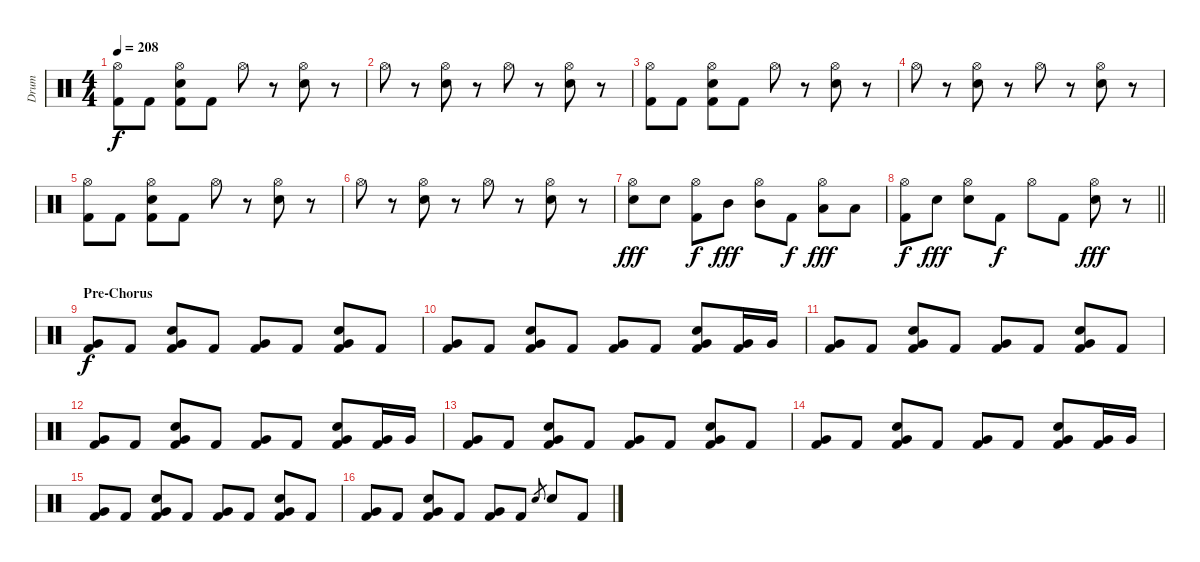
\track ("Drum" "Drum") {instrument percussion}
\staff {score}
\articulation defaults
\ts (4 4)
\tempo 208
\clef neutral
\ks c
("Hi-Hat (open)" "Kick (hit) 2").8{dy f} "Kick (hit) 2".8 ("Hi-Hat (open)" "Electric Snare (hit)" "Kick (hit) 2").8 "Kick (hit) 2".8 "Hi-Hat (open)".8 r.8 ("Hi-Hat (open)" "Electric Snare (hit)").8 r.8 |
"Hi-Hat (open)".8 r.8 ("Hi-Hat (open)" "Electric Snare (hit)").8 r.8 "Hi-Hat (open)".8 r.8 ("Hi-Hat (open)" "Electric Snare (hit)").8 r.8 |
("Hi-Hat (open)" "Kick (hit) 2").8 "Kick (hit) 2".8 ("Hi-Hat (open)" "Electric Snare (hit)" "Kick (hit) 2").8 "Kick (hit) 2".8 "Hi-Hat (open)".8 r.8 ("Hi-Hat (open)" "Electric Snare (hit)").8 r.8 |
"Hi-Hat (open)".8 r.8 ("Hi-Hat (open)" "Electric Snare (hit)").8 r.8 "Hi-Hat (open)".8 r.8 ("Hi-Hat (open)" "Electric Snare (hit)").8 r.8 |
("Hi-Hat (open)" "Kick (hit) 2").8 "Kick (hit) 2".8 ("Hi-Hat (open)" "Electric Snare (hit)" "Kick (hit) 2").8 "Kick (hit) 2".8 "Hi-Hat (open)".8 r.8 ("Hi-Hat (open)" "Electric Snare (hit)").8 r.8 |
"Hi-Hat (open)".8 r.8 ("Hi-Hat (open)" "Electric Snare (hit)").8 r.8 "Hi-Hat (open)".8 r.8 ("Hi-Hat (open)" "Electric Snare (hit)").8 r.8 |
("Hi-Hat (open)" "Electric Snare (hit)").8{dy fff} "Electric Snare (hit)".8 ("Hi-Hat (open)" "Kick (hit) 2").8{dy f} "Mid Tom (hit)".8{dy fff} ("Hi-Hat (open)" "Mid Tom (hit)").8 "Kick (hit) 2".8{dy f} ("Hi-Hat (open)" "Low Tom (hit)").8{dy fff} "Low Tom (hit)".8 |
\barLineRight lightlight
("Hi-Hat (open)" "Kick (hit) 2").8{dy f} "Electric Snare (hit)".8{dy fff} ("Hi-Hat (open)" "Electric Snare (hit)").8 "Kick (hit) 2".8{dy f} "Hi-Hat (open)".8 "Kick (hit) 2".8 ("Hi-Hat (open)" "Electric Snare (hit)").8{dy fff} r.8 |
\section ("" "Pre-Chorus")
("Very Low Tom (hit)" "Kick (hit) 2").8{dy f} "Kick (hit) 2".8 ("Very Low Tom (hit)" "Electric Snare (hit)" "Kick (hit) 2").8 "Kick (hit) 2".8 ("Very Low Tom (hit)" "Kick (hit) 2").8 "Kick (hit) 2".8 ("Very Low Tom (hit)" "Electric Snare (hit)" "Kick (hit) 2").8 "Kick (hit) 2".8 |
("Very Low Tom (hit)" "Kick (hit) 2").8 "Kick (hit) 2".8 ("Very Low Tom (hit)" "Electric Snare (hit)" "Kick (hit) 2").8 "Kick (hit) 2".8 ("Very Low Tom (hit)" "Kick (hit) 2").8 "Kick (hit) 2".8 ("Very Low Tom (hit)" "Electric Snare (hit)" "Kick (hit) 2").8 ("Very Low Tom (hit)" "Kick (hit) 2").16 "Very Low Tom (hit)".16 |
("Very Low Tom (hit)" "Kick (hit) 2").8 "Kick (hit) 2".8 ("Very Low Tom (hit)" "Electric Snare (hit)" "Kick (hit) 2").8 "Kick (hit) 2".8 ("Very Low Tom (hit)" "Kick (hit) 2").8 "Kick (hit) 2".8 ("Very Low Tom (hit)" "Electric Snare (hit)" "Kick (hit) 2").8 "Kick (hit) 2".8 |
("Very Low Tom (hit)" "Kick (hit) 2").8 "Kick (hit) 2".8 ("Very Low Tom (hit)" "Electric Snare (hit)" "Kick (hit) 2").8 "Kick (hit) 2".8 ("Very Low Tom (hit)" "Kick (hit) 2").8 "Kick (hit) 2".8 ("Very Low Tom (hit)" "Electric Snare (hit)" "Kick (hit) 2").8 ("Very Low Tom (hit)" "Kick (hit) 2").16 "Very Low Tom (hit)".16 |
("Very Low Tom (hit)" "Kick (hit) 2").8 "Kick (hit) 2".8 ("Very Low Tom (hit)" "Electric Snare (hit)" "Kick (hit) 2").8 "Kick (hit) 2".8 ("Very Low Tom (hit)" "Kick (hit) 2").8 "Kick (hit) 2".8 ("Very Low Tom (hit)" "Electric Snare (hit)" "Kick (hit) 2").8 "Kick (hit) 2".8 |
("Very Low Tom (hit)" "Kick (hit) 2").8 "Kick (hit) 2".8 ("Very Low Tom (hit)" "Electric Snare (hit)" "Kick (hit) 2").8 "Kick (hit) 2".8 ("Very Low Tom (hit)" "Kick (hit) 2").8 "Kick (hit) 2".8 ("Very Low Tom (hit)" "Electric Snare (hit)" "Kick (hit) 2").8 ("Very Low Tom (hit)" "Kick (hit) 2").16 "Very Low Tom (hit)".16 |
("Very Low Tom (hit)" "Kick (hit) 2").8 "Kick (hit) 2".8 ("Very Low Tom (hit)" "Electric Snare (hit)" "Kick (hit) 2").8 "Kick (hit) 2".8 ("Very Low Tom (hit)" "Kick (hit) 2").8 "Kick (hit) 2".8 ("Very Low Tom (hit)" "Electric Snare (hit)" "Kick (hit) 2").8 "Kick (hit) 2".8 |
("Very Low Tom (hit)" "Kick (hit) 2").8 "Kick (hit) 2".8 ("Very Low Tom (hit)" "Electric Snare (hit)" "Kick (hit) 2").8 "Kick (hit) 2".8 ("Very Low Tom (hit)" "Kick (hit) 2").8 "Kick (hit) 2".8 "Electric Snare (hit)".8{gr} "Electric Snare (hit)".8 "Kick (hit) 2".8
